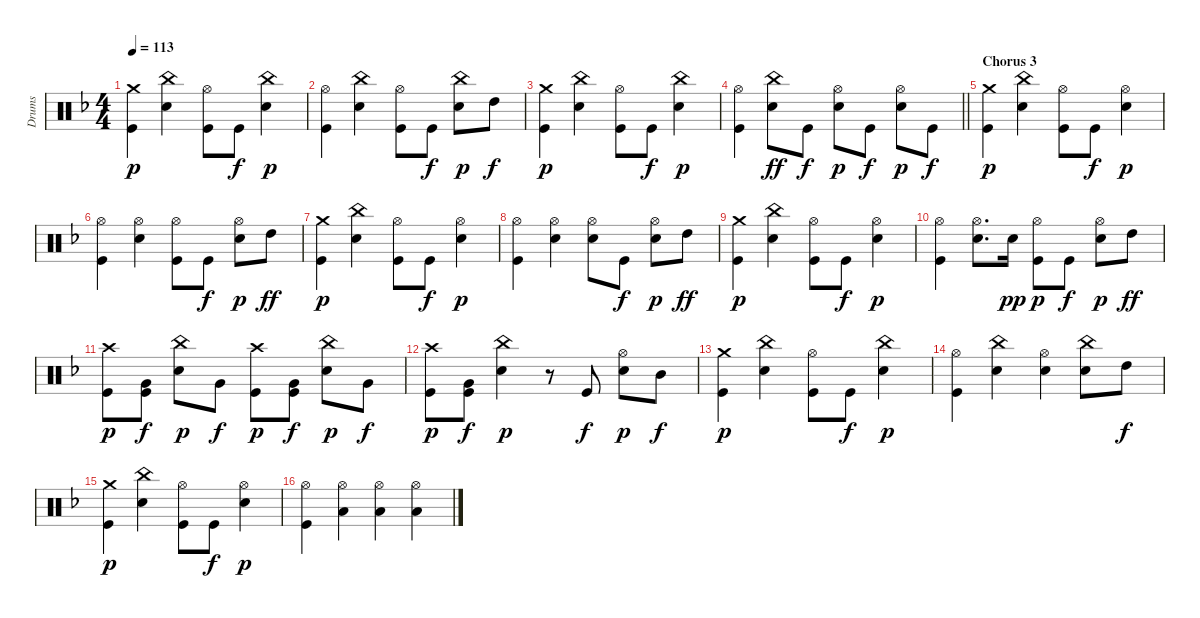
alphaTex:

\track ("Drums" "Drums") {instrument percussion}
\staff {score}
\articulation defaults
\ts (4 4)
\tempo 113
\clef neutral
\ks dminor
("Kick (hit)" "Crash medium (hit)").4{dy p} ("China (hit)" "Electric Snare (hit)").4 ("Kick (hit)" "Hi-Hat (open)").8 "Kick (hit)".8{dy f} ("Electric Snare (hit)" "China (hit)").4{dy p} |
("Kick (hit)" "Hi-Hat (open)").4 ("China (hit)" "Electric Snare (hit)").4 ("Kick (hit)" "Hi-Hat (open)").8 "Kick (hit)".8{dy f} ("Electric Snare (hit)" "China (hit)").8{dy p} "High Tom (hit)".8{dy f} |
("Kick (hit)" "Crash medium (hit)").4{dy p} ("China (hit)" "Electric Snare (hit)").4 ("Kick (hit)" "Hi-Hat (open)").8 "Kick (hit)".8{dy f} ("Electric Snare (hit)" "China (hit)").4{dy p} |
\barLineRight lightlight
("Kick (hit)" "Hi-Hat (open)").4 ("China (hit)" "Electric Snare (hit)").8{dy ff} "Kick (hit)".8{dy f} ("Electric Snare (hit)" "Hi-Hat (open)").8{dy p} "Kick (hit)".8{dy f} ("Electric Snare (hit)" "Hi-Hat (open)").8{dy p} "Kick (hit)".8{dy f} |
\section ("" "Chorus 3")
("Kick (hit)" "Crash medium (hit)").4{dy p} ("China (hit)" "Electric Snare (hit)").4 ("Kick (hit)" "Hi-Hat (open)").8 "Kick (hit)".8{dy f} ("Electric Snare (hit)" "Hi-Hat (open)").4{dy p} |
("Kick (hit)" "Hi-Hat (open)").4 ("Hi-Hat (open)" "Electric Snare (hit)").4 ("Kick (hit)" "Hi-Hat (open)").8 "Kick (hit)".8{dy f} ("Electric Snare (hit)" "Hi-Hat (open)").8{dy p} "High Tom (hit)".8{dy ff} |
("Kick (hit)" "Crash medium (hit)").4{dy p} ("China (hit)" "Electric Snare (hit)").4 ("Kick (hit)" "Hi-Hat (open)").8 "Kick (hit)".8{dy f} ("Electric Snare (hit)" "Hi-Hat (open)").4{dy p} |
("Kick (hit)" "Hi-Hat (open)").4 ("Hi-Hat (open)" "Electric Snare (hit)").4 ("Hi-Hat (open)" "Electric Snare (hit)").8 "Kick (hit)".8{dy f} ("Electric Snare (hit)" "Hi-Hat (open)").8{dy p} "High Tom (hit)".8{dy ff} |
("Kick (hit)" "Crash medium (hit)").4{dy p} ("China (hit)" "Electric Snare (hit)").4 ("Kick (hit)" "Hi-Hat (open)").8 "Kick (hit)".8{dy f} ("Electric Snare (hit)" "Hi-Hat (open)").4{dy p} |
("Kick (hit)" "Hi-Hat (open)").4 ("Hi-Hat (open)" "Electric Snare (hit)").8{d} "Electric Snare (hit)".16{dy pp} ("Kick (hit)" "Hi-Hat (open)").8{dy p} "Kick (hit)".8{dy f} ("Electric Snare (hit)" "Hi-Hat (open)").8{dy p} "High Tom (hit)".8{dy ff} |
("Kick (hit)" "Crash high (hit)").8{dy p} ("Kick (hit)" "Very Low Tom (hit)").8{dy f} ("China (hit)" "Electric Snare (hit)").8{dy p} "Very Low Tom (hit)".8{dy f} ("Kick (hit)" "Crash high (hit)").8{dy p} ("Kick (hit)" "Very Low Tom (hit)").8{dy f} ("China (hit)" "Electric Snare (hit)").8{dy p} "Very Low Tom (hit)".8{dy f} |
("Kick (hit)" "Crash high (hit)").8{dy p} ("Kick (hit)" "Very Low Tom (hit)").8{dy f} ("China (hit)" "Electric Snare (hit)").4{dy p} r.8 "Kick (hit)".8{dy f} ("Electric Snare (hit)" "Hi-Hat (open)").8{dy p} "Mid Tom (hit)".8{dy f} |
("Kick (hit)" "Crash medium (hit)").4{dy p} ("China (hit)" "Electric Snare (hit)").4 ("Kick (hit)" "Hi-Hat (open)").8 "Kick (hit)".8{dy f} ("Electric Snare (hit)" "China (hit)").4{dy p} |
("Kick (hit)" "Hi-Hat (open)").4 ("China (hit)" "Electric Snare (hit)").4 ("Hi-Hat (open)" "Electric Snare (hit)").4 ("Electric Snare (hit)" "China (hit)").8 "High Tom (hit)".8{dy f} |
("Kick (hit)" "Crash medium (hit)").4{dy p} ("China (hit)" "Electric Snare (hit)").4 ("Kick (hit)" "Hi-Hat (open)").8 "Kick (hit)".8{dy f} ("Electric Snare (hit)" "Hi-Hat (open)").4{dy p} |
("Kick (hit)" "Hi-Hat (open)").4 ("Hi-Hat (open)" "Low Tom (hit)").4 ("Low Tom (hit)" "Hi-Hat (open)").4 ("Low Tom (hit)" "Hi-Hat (open)").4
